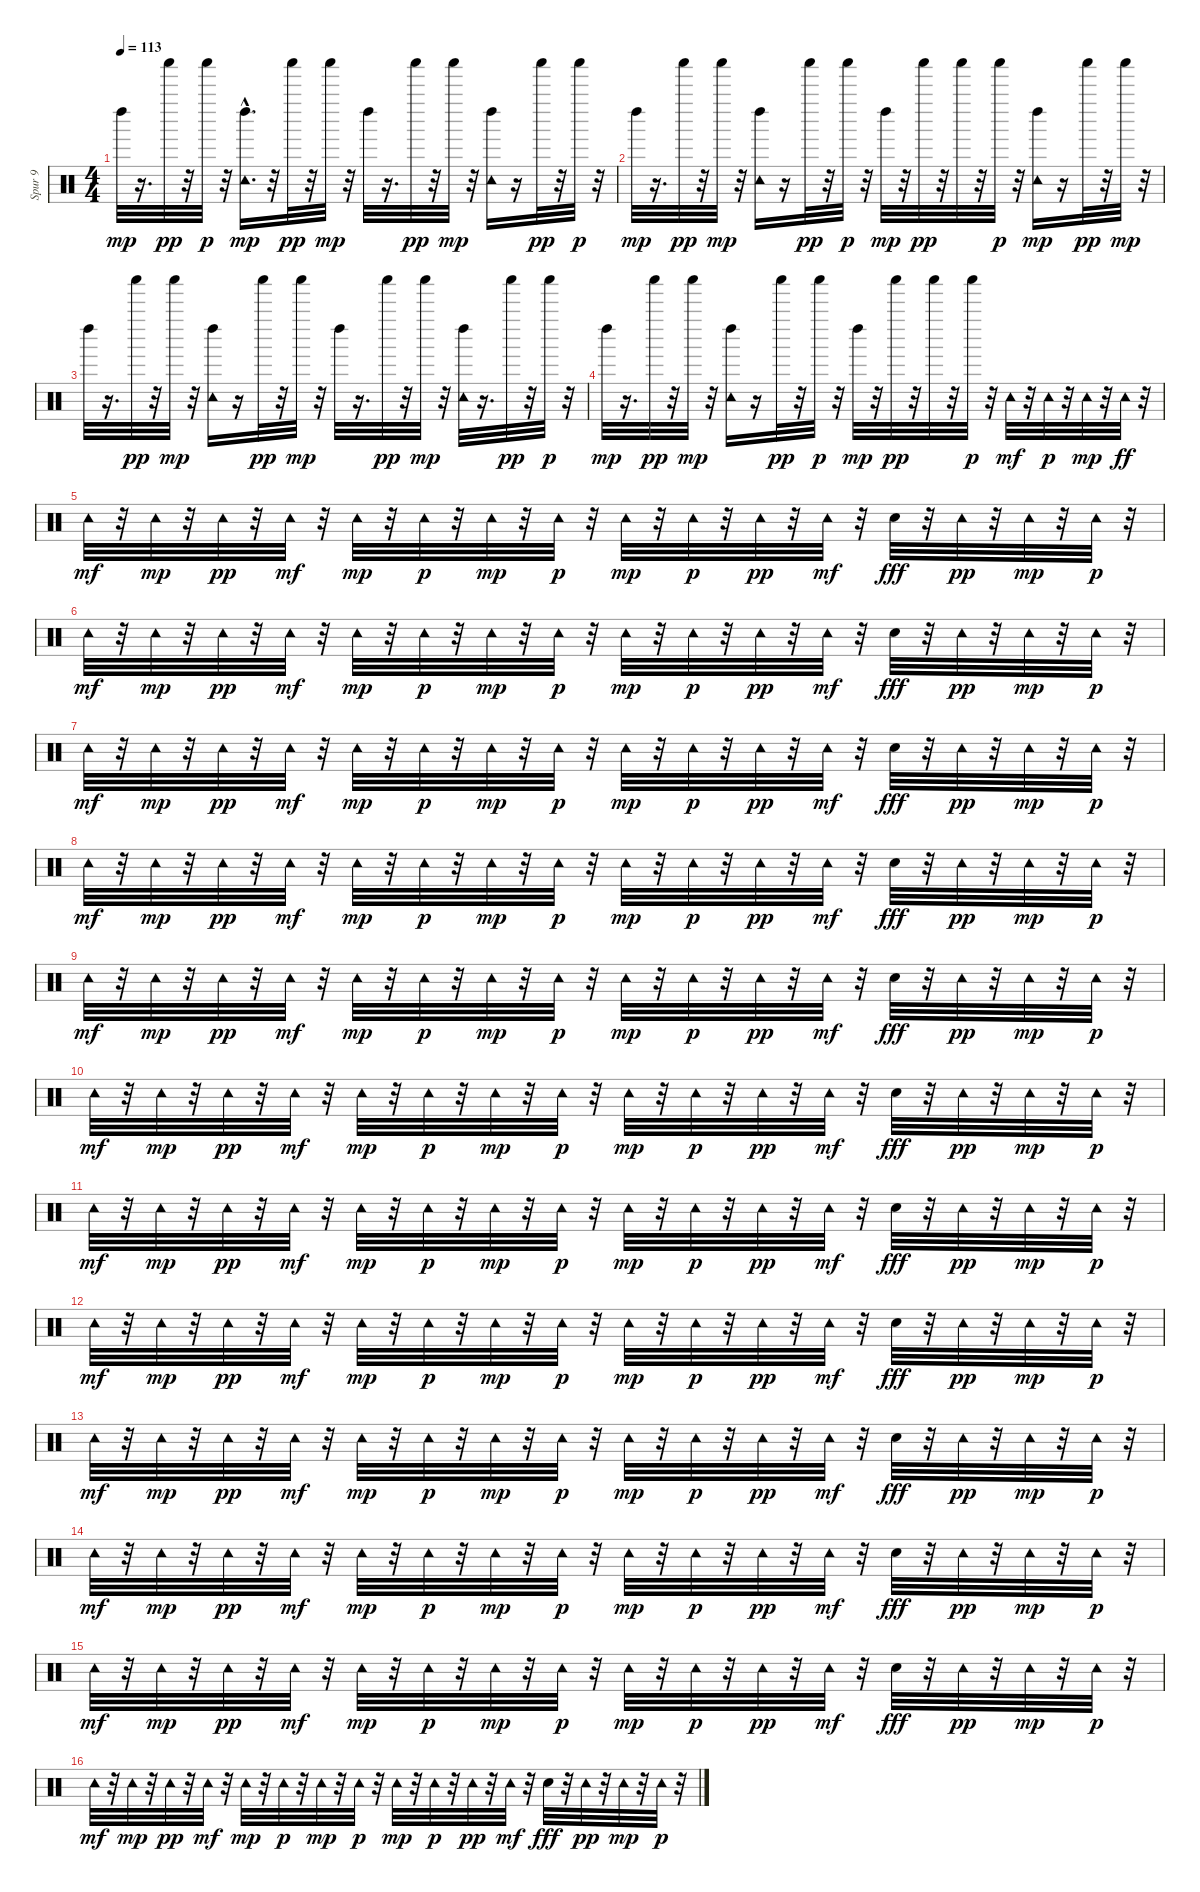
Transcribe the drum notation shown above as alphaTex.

\track ("Spur 9" "Spur 9") {instrument percussion}
\staff {score}
\articulation defaults
\ts (4 4)
\tempo 113
\clef neutral
\ks c "Left Maraca (hit)".32{dy mp}
r.16{d} "Shaker (hit)".32{dy pp} r.32 "Shaker (hit)".32{dy p} r.32 ("Tambourine (hit)"{hac} "Left Maraca (hit)").16{d dy mp} r.32 "Shaker (hit)".32{dy pp} r.32 "Shaker (hit)".32{dy mp} r.32 "Left Maraca (hit)".32 r.16{d} "Shaker (hit)".32{dy pp} r.32 "Shaker (hit)".32{dy mp} r.32 ("Tambourine (hit)" "Left Maraca (hit)").16 r.16 "Shaker (hit)".32{dy pp} r.32 "Shaker (hit)".32{dy p} r.32 |
"Left Maraca (hit)".32{dy mp} r.16{d} "Shaker (hit)".32{dy pp} r.32 "Shaker (hit)".32{dy mp} r.32 ("Tambourine (hit)" "Left Maraca (hit)").16 r.16 "Shaker (hit)".32{dy pp} r.32 "Shaker (hit)".32{dy p} r.32 "Left Maraca (hit)".32{dy mp} r.32 "Shaker (hit)".32{dy pp} r.32 "Shaker (hit)".32 r.32 "Shaker (hit)".32{dy p} r.32 ("Tambourine (hit)" "Left Maraca (hit)").16{dy mp} r.16 "Shaker (hit)".32{dy pp} r.32 "Shaker (hit)".32{dy mp} r.32 |
"Left Maraca (hit)".32 r.16{d} "Shaker (hit)".32{dy pp} r.32 "Shaker (hit)".32{dy mp} r.32 ("Tambourine (hit)" "Left Maraca (hit)").16 r.16 "Shaker (hit)".32{dy pp} r.32 "Shaker (hit)".32{dy mp} r.32 "Left Maraca (hit)".32 r.16{d} "Shaker (hit)".32{dy pp} r.32 "Shaker (hit)".32{dy mp} r.32 ("Tambourine (hit)" "Left Maraca (hit)").32 r.16{d} "Shaker (hit)".32{dy pp} r.32 "Shaker (hit)".32{dy p} r.32 |
"Left Maraca (hit)".32{dy mp} r.16{d} "Shaker (hit)".32{dy pp} r.32 "Shaker (hit)".32{dy mp} r.32 ("Tambourine (hit)" "Left Maraca (hit)").16 r.16 "Shaker (hit)".32{dy pp} r.32 "Shaker (hit)".32{dy p} r.32 "Left Maraca (hit)".32{dy mp} r.32 "Shaker (hit)".32{dy pp} r.32 "Shaker (hit)".32 r.32 "Shaker (hit)".32{dy p} r.32 "Tambourine (hit)".32{dy mf} r.32 "Tambourine (hit)".32{dy p} r.32 "Tambourine (hit)".32{dy mp} r.32 "Tambourine (hit)".32{dy ff} r.32 |
"Tambourine (hit)".32{dy mf} r.32 "Tambourine (hit)".32{dy mp} r.32 "Tambourine (hit)".32{dy pp} r.32 "Tambourine (hit)".32{dy mf} r.32 "Tambourine (hit)".32{dy mp} r.32 "Tambourine (hit)".32{dy p} r.32 "Tambourine (hit)".32{dy mp} r.32 "Tambourine (hit)".32{dy p} r.32 "Tambourine (hit)".32{dy mp} r.32 "Tambourine (hit)".32{dy p} r.32 "Tambourine (hit)".32{dy pp} r.32 "Tambourine (hit)".32{dy mf} r.32 "Hand Clap (hit)".32{dy fff} r.32 "Tambourine (hit)".32{dy pp} r.32 "Tambourine (hit)".32{dy mp} r.32 "Tambourine (hit)".32{dy p} r.32 |
"Tambourine (hit)".32{dy mf} r.32 "Tambourine (hit)".32{dy mp} r.32 "Tambourine (hit)".32{dy pp} r.32 "Tambourine (hit)".32{dy mf} r.32 "Tambourine (hit)".32{dy mp} r.32 "Tambourine (hit)".32{dy p} r.32 "Tambourine (hit)".32{dy mp} r.32 "Tambourine (hit)".32{dy p} r.32 "Tambourine (hit)".32{dy mp} r.32 "Tambourine (hit)".32{dy p} r.32 "Tambourine (hit)".32{dy pp} r.32 "Tambourine (hit)".32{dy mf} r.32 "Hand Clap (hit)".32{dy fff} r.32 "Tambourine (hit)".32{dy pp} r.32 "Tambourine (hit)".32{dy mp} r.32 "Tambourine (hit)".32{dy p} r.32 |
"Tambourine (hit)".32{dy mf} r.32 "Tambourine (hit)".32{dy mp} r.32 "Tambourine (hit)".32{dy pp} r.32 "Tambourine (hit)".32{dy mf} r.32 "Tambourine (hit)".32{dy mp} r.32 "Tambourine (hit)".32{dy p} r.32 "Tambourine (hit)".32{dy mp} r.32 "Tambourine (hit)".32{dy p} r.32 "Tambourine (hit)".32{dy mp} r.32 "Tambourine (hit)".32{dy p} r.32 "Tambourine (hit)".32{dy pp} r.32 "Tambourine (hit)".32{dy mf} r.32 "Hand Clap (hit)".32{dy fff} r.32 "Tambourine (hit)".32{dy pp} r.32 "Tambourine (hit)".32{dy mp} r.32 "Tambourine (hit)".32{dy p} r.32 |
"Tambourine (hit)".32{dy mf} r.32 "Tambourine (hit)".32{dy mp} r.32 "Tambourine (hit)".32{dy pp} r.32 "Tambourine (hit)".32{dy mf} r.32 "Tambourine (hit)".32{dy mp} r.32 "Tambourine (hit)".32{dy p} r.32 "Tambourine (hit)".32{dy mp} r.32 "Tambourine (hit)".32{dy p} r.32 "Tambourine (hit)".32{dy mp} r.32 "Tambourine (hit)".32{dy p} r.32 "Tambourine (hit)".32{dy pp} r.32 "Tambourine (hit)".32{dy mf} r.32 "Hand Clap (hit)".32{dy fff} r.32 "Tambourine (hit)".32{dy pp} r.32 "Tambourine (hit)".32{dy mp} r.32 "Tambourine (hit)".32{dy p} r.32 |
"Tambourine (hit)".32{dy mf} r.32 "Tambourine (hit)".32{dy mp} r.32 "Tambourine (hit)".32{dy pp} r.32 "Tambourine (hit)".32{dy mf} r.32 "Tambourine (hit)".32{dy mp} r.32 "Tambourine (hit)".32{dy p} r.32 "Tambourine (hit)".32{dy mp} r.32 "Tambourine (hit)".32{dy p} r.32 "Tambourine (hit)".32{dy mp} r.32 "Tambourine (hit)".32{dy p} r.32 "Tambourine (hit)".32{dy pp} r.32 "Tambourine (hit)".32{dy mf} r.32 "Hand Clap (hit)".32{dy fff} r.32 "Tambourine (hit)".32{dy pp} r.32 "Tambourine (hit)".32{dy mp} r.32 "Tambourine (hit)".32{dy p} r.32 |
"Tambourine (hit)".32{dy mf} r.32 "Tambourine (hit)".32{dy mp} r.32 "Tambourine (hit)".32{dy pp} r.32 "Tambourine (hit)".32{dy mf} r.32 "Tambourine (hit)".32{dy mp} r.32 "Tambourine (hit)".32{dy p} r.32 "Tambourine (hit)".32{dy mp} r.32 "Tambourine (hit)".32{dy p} r.32 "Tambourine (hit)".32{dy mp} r.32 "Tambourine (hit)".32{dy p} r.32 "Tambourine (hit)".32{dy pp} r.32 "Tambourine (hit)".32{dy mf} r.32 "Hand Clap (hit)".32{dy fff} r.32 "Tambourine (hit)".32{dy pp} r.32 "Tambourine (hit)".32{dy mp} r.32 "Tambourine (hit)".32{dy p} r.32 |
"Tambourine (hit)".32{dy mf} r.32 "Tambourine (hit)".32{dy mp} r.32 "Tambourine (hit)".32{dy pp} r.32 "Tambourine (hit)".32{dy mf} r.32 "Tambourine (hit)".32{dy mp} r.32 "Tambourine (hit)".32{dy p} r.32 "Tambourine (hit)".32{dy mp} r.32 "Tambourine (hit)".32{dy p} r.32 "Tambourine (hit)".32{dy mp} r.32 "Tambourine (hit)".32{dy p} r.32 "Tambourine (hit)".32{dy pp} r.32 "Tambourine (hit)".32{dy mf} r.32 "Hand Clap (hit)".32{dy fff} r.32 "Tambourine (hit)".32{dy pp} r.32 "Tambourine (hit)".32{dy mp} r.32 "Tambourine (hit)".32{dy p} r.32 |
"Tambourine (hit)".32{dy mf} r.32 "Tambourine (hit)".32{dy mp} r.32 "Tambourine (hit)".32{dy pp} r.32 "Tambourine (hit)".32{dy mf} r.32 "Tambourine (hit)".32{dy mp} r.32 "Tambourine (hit)".32{dy p} r.32 "Tambourine (hit)".32{dy mp} r.32 "Tambourine (hit)".32{dy p} r.32 "Tambourine (hit)".32{dy mp} r.32 "Tambourine (hit)".32{dy p} r.32 "Tambourine (hit)".32{dy pp} r.32 "Tambourine (hit)".32{dy mf} r.32 "Hand Clap (hit)".32{dy fff} r.32 "Tambourine (hit)".32{dy pp} r.32 "Tambourine (hit)".32{dy mp} r.32 "Tambourine (hit)".32{dy p} r.32 |
"Tambourine (hit)".32{dy mf} r.32 "Tambourine (hit)".32{dy mp} r.32 "Tambourine (hit)".32{dy pp} r.32 "Tambourine (hit)".32{dy mf} r.32 "Tambourine (hit)".32{dy mp} r.32 "Tambourine (hit)".32{dy p} r.32 "Tambourine (hit)".32{dy mp} r.32 "Tambourine (hit)".32{dy p} r.32 "Tambourine (hit)".32{dy mp} r.32 "Tambourine (hit)".32{dy p} r.32 "Tambourine (hit)".32{dy pp} r.32 "Tambourine (hit)".32{dy mf} r.32 "Hand Clap (hit)".32{dy fff} r.32 "Tambourine (hit)".32{dy pp} r.32 "Tambourine (hit)".32{dy mp} r.32 "Tambourine (hit)".32{dy p} r.32 |
"Tambourine (hit)".32{dy mf} r.32 "Tambourine (hit)".32{dy mp} r.32 "Tambourine (hit)".32{dy pp} r.32 "Tambourine (hit)".32{dy mf} r.32 "Tambourine (hit)".32{dy mp} r.32 "Tambourine (hit)".32{dy p} r.32 "Tambourine (hit)".32{dy mp} r.32 "Tambourine (hit)".32{dy p} r.32 "Tambourine (hit)".32{dy mp} r.32 "Tambourine (hit)".32{dy p} r.32 "Tambourine (hit)".32{dy pp} r.32 "Tambourine (hit)".32{dy mf} r.32 "Hand Clap (hit)".32{dy fff} r.32 "Tambourine (hit)".32{dy pp} r.32 "Tambourine (hit)".32{dy mp} r.32 "Tambourine (hit)".32{dy p} r.32 |
"Tambourine (hit)".32{dy mf} r.32 "Tambourine (hit)".32{dy mp} r.32 "Tambourine (hit)".32{dy pp} r.32 "Tambourine (hit)".32{dy mf} r.32 "Tambourine (hit)".32{dy mp} r.32 "Tambourine (hit)".32{dy p} r.32 "Tambourine (hit)".32{dy mp} r.32 "Tambourine (hit)".32{dy p} r.32 "Tambourine (hit)".32{dy mp} r.32 "Tambourine (hit)".32{dy p} r.32 "Tambourine (hit)".32{dy pp} r.32 "Tambourine (hit)".32{dy mf} r.32 "Hand Clap (hit)".32{dy fff} r.32 "Tambourine (hit)".32{dy pp} r.32 "Tambourine (hit)".32{dy mp} r.32 "Tambourine (hit)".32{dy p} r.32 |
"Tambourine (hit)".32{dy mf} r.32 "Tambourine (hit)".32{dy mp} r.32 "Tambourine (hit)".32{dy pp} r.32 "Tambourine (hit)".32{dy mf} r.32 "Tambourine (hit)".32{dy mp} r.32 "Tambourine (hit)".32{dy p} r.32 "Tambourine (hit)".32{dy mp} r.32 "Tambourine (hit)".32{dy p} r.32 "Tambourine (hit)".32{dy mp} r.32 "Tambourine (hit)".32{dy p} r.32 "Tambourine (hit)".32{dy pp} r.32 "Tambourine (hit)".32{dy mf} r.32 "Hand Clap (hit)".32{dy fff} r.32 "Tambourine (hit)".32{dy pp} r.32 "Tambourine (hit)".32{dy mp} r.32 "Tambourine (hit)".32{dy p} r.32
